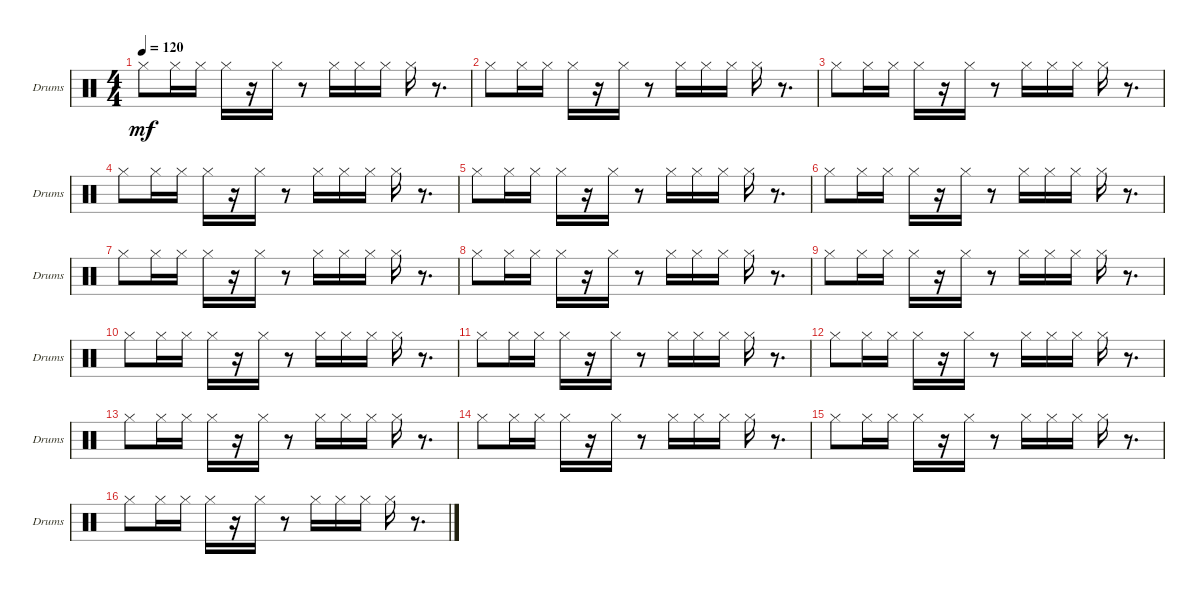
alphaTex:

\bracketExtendMode groupsimilarinstruments
\singleTrackTrackNamePolicy allsystems
\multiTrackTrackNamePolicy allsystems
\firstSystemTrackNameOrientation horizontal
\otherSystemsTrackNameOrientation horizontal
\track ("Drum hihat" "Drums") {instrument percussion}
\staff {score}
\articulation defaults
\ts (4 4)
\tempo 120
\clef neutral
\scale
0.973518
\ks c "Hi-Hat (closed)".8{dy mf} "Hi-Hat (closed)".16 "Hi-Hat (closed)".16 "Hi-Hat (closed)".16
r.16 "Hi-Hat (closed)".16 r.8 "Hi-Hat (closed)".16 "Hi-Hat (closed)".16 "Hi-Hat (closed)".16 "Hi-Hat (closed)".16 r.8{d} |
\scale
0.973518 "Hi-Hat (closed)".8 "Hi-Hat (closed)".16 "Hi-Hat (closed)".16 "Hi-Hat (closed)".16 r.16 "Hi-Hat (closed)".16 r.8 "Hi-Hat (closed)".16 "Hi-Hat (closed)".16 "Hi-Hat (closed)".16 "Hi-Hat (closed)".16 r.8{d} |
\scale
1.05296 "Hi-Hat (closed)".8 "Hi-Hat (closed)".16 "Hi-Hat (closed)".16 "Hi-Hat (closed)".16 r.16 "Hi-Hat (closed)".16 r.8 "Hi-Hat (closed)".16 "Hi-Hat (closed)".16 "Hi-Hat (closed)".16 "Hi-Hat (closed)".16 r.8{d} |
\scale
0.973518 "Hi-Hat (closed)".8 "Hi-Hat (closed)".16 "Hi-Hat (closed)".16 "Hi-Hat (closed)".16 r.16 "Hi-Hat (closed)".16 r.8 "Hi-Hat (closed)".16 "Hi-Hat (closed)".16 "Hi-Hat (closed)".16 "Hi-Hat (closed)".16 r.8{d} |
\scale
0.973518 "Hi-Hat (closed)".8 "Hi-Hat (closed)".16 "Hi-Hat (closed)".16 "Hi-Hat (closed)".16 r.16 "Hi-Hat (closed)".16 r.8 "Hi-Hat (closed)".16 "Hi-Hat (closed)".16 "Hi-Hat (closed)".16 "Hi-Hat (closed)".16 r.8{d} |
\scale
1.05296 "Hi-Hat (closed)".8 "Hi-Hat (closed)".16 "Hi-Hat (closed)".16 "Hi-Hat (closed)".16 r.16 "Hi-Hat (closed)".16 r.8 "Hi-Hat (closed)".16 "Hi-Hat (closed)".16 "Hi-Hat (closed)".16 "Hi-Hat (closed)".16 r.8{d} |
\scale
0.973518 "Hi-Hat (closed)".8 "Hi-Hat (closed)".16 "Hi-Hat (closed)".16 "Hi-Hat (closed)".16 r.16 "Hi-Hat (closed)".16 r.8 "Hi-Hat (closed)".16 "Hi-Hat (closed)".16 "Hi-Hat (closed)".16 "Hi-Hat (closed)".16 r.8{d} |
\scale
0.973518 "Hi-Hat (closed)".8 "Hi-Hat (closed)".16 "Hi-Hat (closed)".16 "Hi-Hat (closed)".16 r.16 "Hi-Hat (closed)".16 r.8 "Hi-Hat (closed)".16 "Hi-Hat (closed)".16 "Hi-Hat (closed)".16 "Hi-Hat (closed)".16 r.8{d} |
\scale
1.05296 "Hi-Hat (closed)".8 "Hi-Hat (closed)".16 "Hi-Hat (closed)".16 "Hi-Hat (closed)".16 r.16 "Hi-Hat (closed)".16 r.8 "Hi-Hat (closed)".16 "Hi-Hat (closed)".16 "Hi-Hat (closed)".16 "Hi-Hat (closed)".16 r.8{d} |
\scale
0.973518 "Hi-Hat (closed)".8 "Hi-Hat (closed)".16 "Hi-Hat (closed)".16 "Hi-Hat (closed)".16 r.16 "Hi-Hat (closed)".16 r.8 "Hi-Hat (closed)".16 "Hi-Hat (closed)".16 "Hi-Hat (closed)".16 "Hi-Hat (closed)".16 r.8{d} |
\scale
0.973518 "Hi-Hat (closed)".8 "Hi-Hat (closed)".16 "Hi-Hat (closed)".16 "Hi-Hat (closed)".16 r.16 "Hi-Hat (closed)".16 r.8 "Hi-Hat (closed)".16 "Hi-Hat (closed)".16 "Hi-Hat (closed)".16 "Hi-Hat (closed)".16 r.8{d} |
\scale
1.05296 "Hi-Hat (closed)".8 "Hi-Hat (closed)".16 "Hi-Hat (closed)".16 "Hi-Hat (closed)".16 r.16 "Hi-Hat (closed)".16 r.8 "Hi-Hat (closed)".16 "Hi-Hat (closed)".16 "Hi-Hat (closed)".16 "Hi-Hat (closed)".16 r.8{d} |
\scale
0.973518 "Hi-Hat (closed)".8 "Hi-Hat (closed)".16 "Hi-Hat (closed)".16 "Hi-Hat (closed)".16 r.16 "Hi-Hat (closed)".16 r.8 "Hi-Hat (closed)".16 "Hi-Hat (closed)".16 "Hi-Hat (closed)".16 "Hi-Hat (closed)".16 r.8{d} |
\scale
0.973518 "Hi-Hat (closed)".8 "Hi-Hat (closed)".16 "Hi-Hat (closed)".16 "Hi-Hat (closed)".16 r.16 "Hi-Hat (closed)".16 r.8 "Hi-Hat (closed)".16 "Hi-Hat (closed)".16 "Hi-Hat (closed)".16 "Hi-Hat (closed)".16 r.8{d} |
\scale
1.05296 "Hi-Hat (closed)".8 "Hi-Hat (closed)".16 "Hi-Hat (closed)".16 "Hi-Hat (closed)".16 r.16 "Hi-Hat (closed)".16 r.8 "Hi-Hat (closed)".16 "Hi-Hat (closed)".16 "Hi-Hat (closed)".16 "Hi-Hat (closed)".16 r.8{d} |
\scale
0.973518 "Hi-Hat (closed)".8 "Hi-Hat (closed)".16 "Hi-Hat (closed)".16 "Hi-Hat (closed)".16 r.16 "Hi-Hat (closed)".16 r.8 "Hi-Hat (closed)".16 "Hi-Hat (closed)".16 "Hi-Hat (closed)".16 "Hi-Hat (closed)".16 r.8{d}
